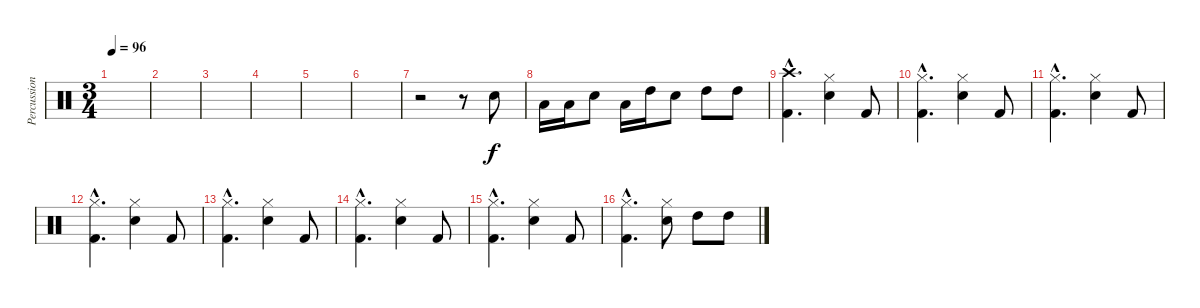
\track ("Percussions" "Percussion") {instrument percussion}
\staff {score}
\articulation defaults
\ts (3 4)
\tempo 96
\clef neutral
\ks c
|
|
|
|
|
|
r.2 r.8 "Snare (hit) 2".8 |
"Low Tom (hit)".16 "Low Tom (hit)".16 "Snare (hit) 2".8 "Low Tom (hit)".16 "High Tom (hit)".16 "Snare (hit) 2".8 "High Tom (hit)".8 "High Tom (hit)".8 |
("Crash high (hit)"{hac} "Kick (hit) 2"{hac}).4{d} ("Hi-Hat (closed)" "Snare (hit) 2").4 "Kick (hit) 2".8 |
("Hi-Hat (closed)"{hac} "Kick (hit) 2"{hac}).4{d} ("Hi-Hat (closed)" "Snare (hit) 2").4 "Kick (hit) 2".8 |
("Hi-Hat (closed)"{hac} "Kick (hit) 2"{hac}).4{d} ("Hi-Hat (closed)" "Snare (hit) 2").4 "Kick (hit) 2".8 |
("Hi-Hat (closed)"{hac} "Kick (hit) 2"{hac}).4{d} ("Hi-Hat (closed)" "Snare (hit) 2").4 "Kick (hit) 2".8 |
("Hi-Hat (closed)"{hac} "Kick (hit) 2"{hac}).4{d} ("Hi-Hat (closed)" "Snare (hit) 2").4 "Kick (hit) 2".8 |
("Hi-Hat (closed)"{hac} "Kick (hit) 2"{hac}).4{d} ("Hi-Hat (closed)" "Snare (hit) 2").4 "Kick (hit) 2".8 |
("Hi-Hat (closed)"{hac} "Kick (hit) 2"{hac}).4{d} ("Hi-Hat (closed)" "Snare (hit) 2").4 "Kick (hit) 2".8 |
("Hi-Hat (closed)"{hac} "Kick (hit) 2"{hac}).4{d} ("Hi-Hat (closed)" "Snare (hit) 2").8 "High Tom (hit)".8 "High Tom (hit)".8
